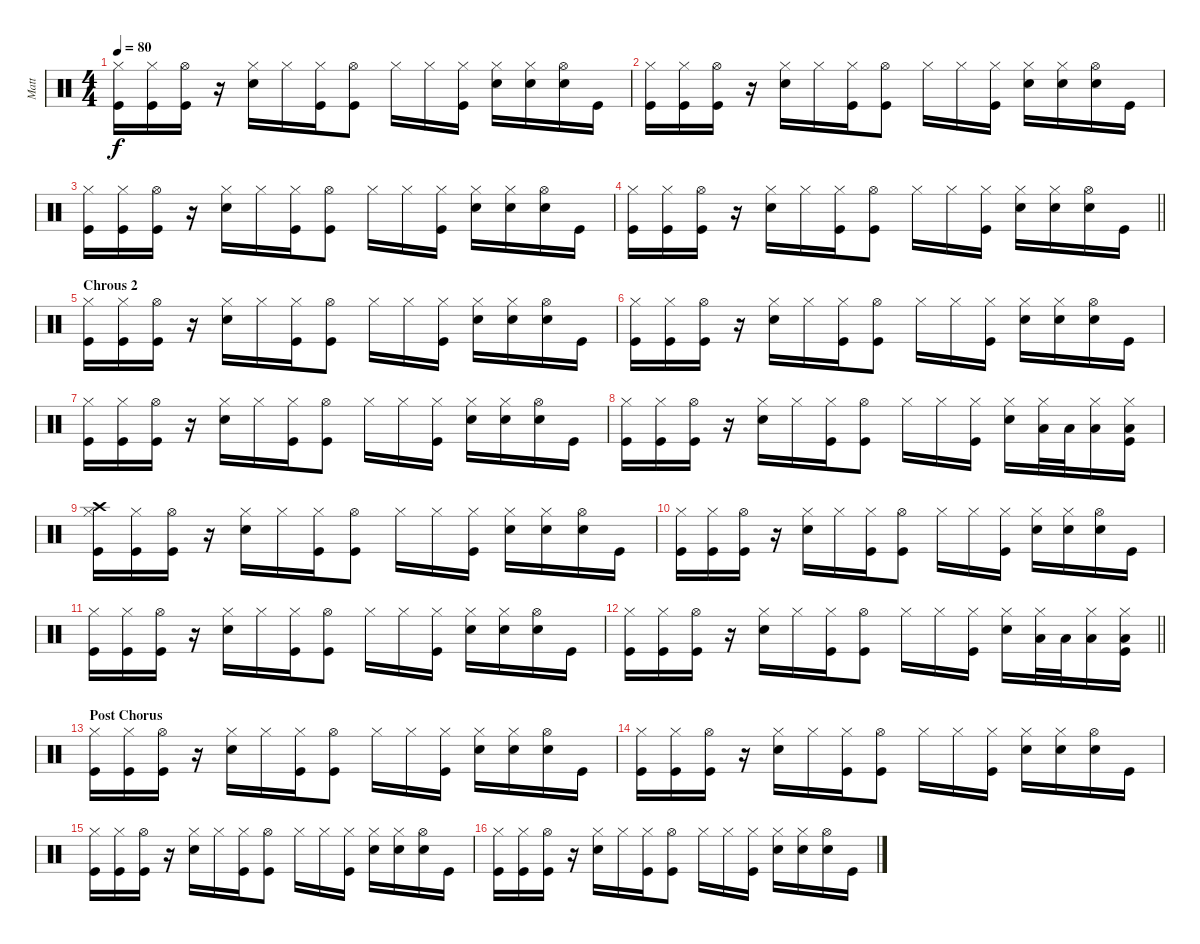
\track ("Matt" "Matt") {instrument percussion}
\staff {score}
\articulation defaults
\ts (4 4)
\tempo 80
\clef neutral
\ks c
("Hi-Hat (closed)" "Kick (hit)").16{dy f} ("Hi-Hat (closed)" "Kick (hit)").16 ("Hi-Hat (open)" "Kick (hit)").16 r.16 ("Hi-Hat (closed)" "Electric Snare (hit)").16 "Hi-Hat (closed)".16 ("Hi-Hat (closed)" "Kick (hit)").16 ("Hi-Hat (open)" "Kick (hit)").8 "Hi-Hat (closed)".16 "Hi-Hat (closed)".16 ("Hi-Hat (closed)" "Kick (hit)").16 ("Hi-Hat (closed)" "Electric Snare (hit)").16 ("Hi-Hat (closed)" "Electric Snare (hit)").16 ("Hi-Hat (open)" "Electric Snare (hit)").16 "Kick (hit)".16 |
("Hi-Hat (closed)" "Kick (hit)").16 ("Hi-Hat (closed)" "Kick (hit)").16 ("Hi-Hat (open)" "Kick (hit)").16 r.16 ("Hi-Hat (closed)" "Electric Snare (hit)").16 "Hi-Hat (closed)".16 ("Hi-Hat (closed)" "Kick (hit)").16 ("Hi-Hat (open)" "Kick (hit)").8 "Hi-Hat (closed)".16 "Hi-Hat (closed)".16 ("Hi-Hat (closed)" "Kick (hit)").16 ("Hi-Hat (closed)" "Electric Snare (hit)").16 ("Hi-Hat (closed)" "Electric Snare (hit)").16 ("Hi-Hat (open)" "Electric Snare (hit)").16 "Kick (hit)".16 |
("Hi-Hat (closed)" "Kick (hit)").16 ("Hi-Hat (closed)" "Kick (hit)").16 ("Hi-Hat (open)" "Kick (hit)").16 r.16 ("Hi-Hat (closed)" "Electric Snare (hit)").16 "Hi-Hat (closed)".16 ("Hi-Hat (closed)" "Kick (hit)").16 ("Hi-Hat (open)" "Kick (hit)").8 "Hi-Hat (closed)".16 "Hi-Hat (closed)".16 ("Hi-Hat (closed)" "Kick (hit)").16 ("Hi-Hat (closed)" "Electric Snare (hit)").16 ("Hi-Hat (closed)" "Electric Snare (hit)").16 ("Hi-Hat (open)" "Electric Snare (hit)").16 "Kick (hit)".16 |
\barLineRight lightlight
("Hi-Hat (closed)" "Kick (hit)").16 ("Hi-Hat (closed)" "Kick (hit)").16 ("Hi-Hat (open)" "Kick (hit)").16 r.16 ("Hi-Hat (closed)" "Electric Snare (hit)").16 "Hi-Hat (closed)".16 ("Hi-Hat (closed)" "Kick (hit)").16 ("Hi-Hat (open)" "Kick (hit)").8 "Hi-Hat (closed)".16 "Hi-Hat (closed)".16 ("Hi-Hat (closed)" "Kick (hit)").16 ("Hi-Hat (closed)" "Electric Snare (hit)").16 ("Hi-Hat (closed)" "Electric Snare (hit)").16 ("Hi-Hat (open)" "Electric Snare (hit)").16 "Kick (hit)".16 |
\section ("" "Chrous 2")
("Hi-Hat (closed)" "Kick (hit)").16 ("Hi-Hat (closed)" "Kick (hit)").16 ("Hi-Hat (open)" "Kick (hit)").16 r.16 ("Hi-Hat (closed)" "Electric Snare (hit)").16 "Hi-Hat (closed)".16 ("Hi-Hat (closed)" "Kick (hit)").16 ("Hi-Hat (open)" "Kick (hit)").8 "Hi-Hat (closed)".16 "Hi-Hat (closed)".16 ("Hi-Hat (closed)" "Kick (hit)").16 ("Hi-Hat (closed)" "Electric Snare (hit)").16 ("Hi-Hat (closed)" "Electric Snare (hit)").16 ("Hi-Hat (open)" "Electric Snare (hit)").16 "Kick (hit)".16 |
("Hi-Hat (closed)" "Kick (hit)").16 ("Hi-Hat (closed)" "Kick (hit)").16 ("Hi-Hat (open)" "Kick (hit)").16 r.16 ("Hi-Hat (closed)" "Electric Snare (hit)").16 "Hi-Hat (closed)".16 ("Hi-Hat (closed)" "Kick (hit)").16 ("Hi-Hat (open)" "Kick (hit)").8 "Hi-Hat (closed)".16 "Hi-Hat (closed)".16 ("Hi-Hat (closed)" "Kick (hit)").16 ("Hi-Hat (closed)" "Electric Snare (hit)").16 ("Hi-Hat (closed)" "Electric Snare (hit)").16 ("Hi-Hat (open)" "Electric Snare (hit)").16 "Kick (hit)".16 |
("Hi-Hat (closed)" "Kick (hit)").16 ("Hi-Hat (closed)" "Kick (hit)").16 ("Hi-Hat (open)" "Kick (hit)").16 r.16 ("Hi-Hat (closed)" "Electric Snare (hit)").16 "Hi-Hat (closed)".16 ("Hi-Hat (closed)" "Kick (hit)").16 ("Hi-Hat (open)" "Kick (hit)").8 "Hi-Hat (closed)".16 "Hi-Hat (closed)".16 ("Hi-Hat (closed)" "Kick (hit)").16 ("Hi-Hat (closed)" "Electric Snare (hit)").16 ("Hi-Hat (closed)" "Electric Snare (hit)").16 ("Hi-Hat (open)" "Electric Snare (hit)").16 "Kick (hit)".16 |
("Hi-Hat (closed)" "Kick (hit)").16 ("Hi-Hat (closed)" "Kick (hit)").16 ("Hi-Hat (open)" "Kick (hit)").16 r.16 ("Hi-Hat (closed)" "Electric Snare (hit)").16 "Hi-Hat (closed)".16 ("Hi-Hat (closed)" "Kick (hit)").16 ("Hi-Hat (open)" "Kick (hit)").8 "Hi-Hat (closed)".16 "Hi-Hat (closed)".16 ("Hi-Hat (closed)" "Kick (hit)").16 ("Hi-Hat (closed)" "Electric Snare (hit)").16 ("Hi-Hat (closed)" "Low Tom (hit)").32 "Low Tom (hit)".32 ("Hi-Hat (closed)" "Low Tom (hit)").16 ("Hi-Hat (closed)" "Low Floor Tom (hit)" "Kick (hit)").16 |
("Crash high (hit)" "Hi-Hat (closed)" "Kick (hit)").16 ("Hi-Hat (closed)" "Kick (hit)").16 ("Hi-Hat (open)" "Kick (hit)").16 r.16 ("Hi-Hat (closed)" "Electric Snare (hit)").16 "Hi-Hat (closed)".16 ("Hi-Hat (closed)" "Kick (hit)").16 ("Hi-Hat (open)" "Kick (hit)").8 "Hi-Hat (closed)".16 "Hi-Hat (closed)".16 ("Hi-Hat (closed)" "Kick (hit)").16 ("Hi-Hat (closed)" "Electric Snare (hit)").16 ("Hi-Hat (closed)" "Electric Snare (hit)").16 ("Hi-Hat (open)" "Electric Snare (hit)").16 "Kick (hit)".16 |
("Hi-Hat (closed)" "Kick (hit)").16 ("Hi-Hat (closed)" "Kick (hit)").16 ("Hi-Hat (open)" "Kick (hit)").16 r.16 ("Hi-Hat (closed)" "Electric Snare (hit)").16 "Hi-Hat (closed)".16 ("Hi-Hat (closed)" "Kick (hit)").16 ("Hi-Hat (open)" "Kick (hit)").8 "Hi-Hat (closed)".16 "Hi-Hat (closed)".16 ("Hi-Hat (closed)" "Kick (hit)").16 ("Hi-Hat (closed)" "Electric Snare (hit)").16 ("Hi-Hat (closed)" "Electric Snare (hit)").16 ("Hi-Hat (open)" "Electric Snare (hit)").16 "Kick (hit)".16 |
("Hi-Hat (closed)" "Kick (hit)").16 ("Hi-Hat (closed)" "Kick (hit)").16 ("Hi-Hat (open)" "Kick (hit)").16 r.16 ("Hi-Hat (closed)" "Electric Snare (hit)").16 "Hi-Hat (closed)".16 ("Hi-Hat (closed)" "Kick (hit)").16 ("Hi-Hat (open)" "Kick (hit)").8 "Hi-Hat (closed)".16 "Hi-Hat (closed)".16 ("Hi-Hat (closed)" "Kick (hit)").16 ("Hi-Hat (closed)" "Electric Snare (hit)").16 ("Hi-Hat (closed)" "Electric Snare (hit)").16 ("Hi-Hat (open)" "Electric Snare (hit)").16 "Kick (hit)".16 |
\barLineRight lightlight
("Hi-Hat (closed)" "Kick (hit)").16 ("Hi-Hat (closed)" "Kick (hit)").16 ("Hi-Hat (open)" "Kick (hit)").16 r.16 ("Hi-Hat (closed)" "Electric Snare (hit)").16 "Hi-Hat (closed)".16 ("Hi-Hat (closed)" "Kick (hit)").16 ("Hi-Hat (open)" "Kick (hit)").8 "Hi-Hat (closed)".16 "Hi-Hat (closed)".16 ("Hi-Hat (closed)" "Kick (hit)").16 ("Hi-Hat (closed)" "Electric Snare (hit)").16 ("Hi-Hat (closed)" "Low Tom (hit)").32 "Low Tom (hit)".32 ("Hi-Hat (closed)" "Low Tom (hit)").16 ("Hi-Hat (closed)" "Low Floor Tom (hit)" "Kick (hit)").16 |
\section ("" "Post Chorus")
("Hi-Hat (closed)" "Kick (hit)").16 ("Hi-Hat (closed)" "Kick (hit)").16 ("Hi-Hat (open)" "Kick (hit)").16 r.16 ("Hi-Hat (closed)" "Electric Snare (hit)").16 "Hi-Hat (closed)".16 ("Hi-Hat (closed)" "Kick (hit)").16 ("Hi-Hat (open)" "Kick (hit)").8 "Hi-Hat (closed)".16 "Hi-Hat (closed)".16 ("Hi-Hat (closed)" "Kick (hit)").16 ("Hi-Hat (closed)" "Electric Snare (hit)").16 ("Hi-Hat (closed)" "Electric Snare (hit)").16 ("Hi-Hat (open)" "Electric Snare (hit)").16 "Kick (hit)".16 |
("Hi-Hat (closed)" "Kick (hit)").16 ("Hi-Hat (closed)" "Kick (hit)").16 ("Hi-Hat (open)" "Kick (hit)").16 r.16 ("Hi-Hat (closed)" "Electric Snare (hit)").16 "Hi-Hat (closed)".16 ("Hi-Hat (closed)" "Kick (hit)").16 ("Hi-Hat (open)" "Kick (hit)").8 "Hi-Hat (closed)".16 "Hi-Hat (closed)".16 ("Hi-Hat (closed)" "Kick (hit)").16 ("Hi-Hat (closed)" "Electric Snare (hit)").16 ("Hi-Hat (closed)" "Electric Snare (hit)").16 ("Hi-Hat (open)" "Electric Snare (hit)").16 "Kick (hit)".16 |
("Hi-Hat (closed)" "Kick (hit)").16 ("Hi-Hat (closed)" "Kick (hit)").16 ("Hi-Hat (open)" "Kick (hit)").16 r.16 ("Hi-Hat (closed)" "Electric Snare (hit)").16 "Hi-Hat (closed)".16 ("Hi-Hat (closed)" "Kick (hit)").16 ("Hi-Hat (open)" "Kick (hit)").8 "Hi-Hat (closed)".16 "Hi-Hat (closed)".16 ("Hi-Hat (closed)" "Kick (hit)").16 ("Hi-Hat (closed)" "Electric Snare (hit)").16 ("Hi-Hat (closed)" "Electric Snare (hit)").16 ("Hi-Hat (open)" "Electric Snare (hit)").16 "Kick (hit)".16 |
("Hi-Hat (closed)" "Kick (hit)").16 ("Hi-Hat (closed)" "Kick (hit)").16 ("Hi-Hat (open)" "Kick (hit)").16 r.16 ("Hi-Hat (closed)" "Electric Snare (hit)").16 "Hi-Hat (closed)".16 ("Hi-Hat (closed)" "Kick (hit)").16 ("Hi-Hat (open)" "Kick (hit)").8 "Hi-Hat (closed)".16 "Hi-Hat (closed)".16 ("Hi-Hat (closed)" "Kick (hit)").16 ("Hi-Hat (closed)" "Electric Snare (hit)").16 ("Hi-Hat (closed)" "Electric Snare (hit)").16 ("Hi-Hat (open)" "Electric Snare (hit)").16 "Kick (hit)".16
